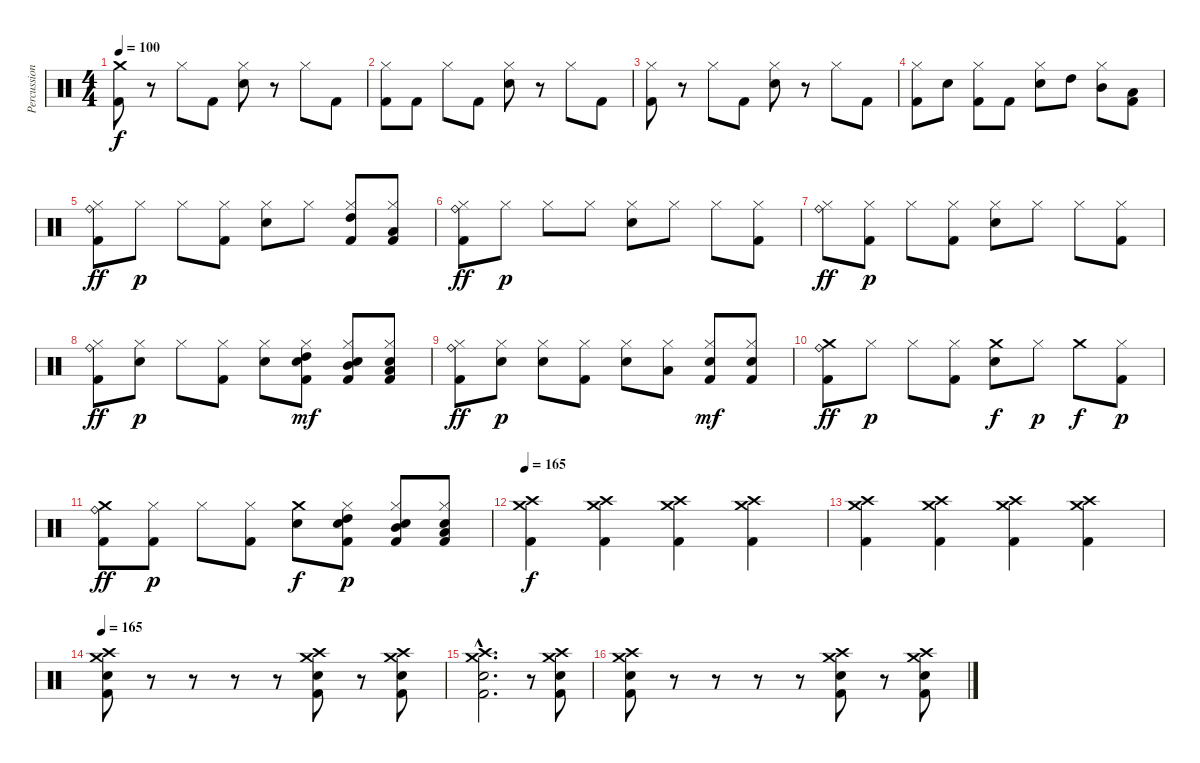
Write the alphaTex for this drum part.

\track ("Percussion" "Percussion") {instrument percussion}
\staff {score}
\articulation defaults
\ts (4 4)
\tempo 100
\clef neutral
\ks c
("Crash medium (hit)" "Kick (hit) 2").8{dy f} r.8 "Hi-Hat (closed)".8 "Kick (hit) 2".8 ("Hi-Hat (closed)" "Snare (hit) 2").8 r.8 "Hi-Hat (closed)".8 "Kick (hit) 2".8 |
("Hi-Hat (closed)" "Kick (hit) 2").8 "Kick (hit) 2".8 "Hi-Hat (closed)".8 "Kick (hit) 2".8 ("Hi-Hat (closed)" "Snare (hit) 2").8 r.8 "Hi-Hat (closed)".8 "Kick (hit) 2".8 |
("Hi-Hat (closed)" "Kick (hit) 2").8 r.8 "Hi-Hat (closed)".8 "Kick (hit) 2".8 ("Hi-Hat (closed)" "Snare (hit) 2").8 r.8 "Hi-Hat (closed)".8 "Kick (hit) 2".8 |
("Hi-Hat (closed)" "Kick (hit) 2").8 "Snare (hit) 2".8 ("Hi-Hat (closed)" "Kick (hit) 2").8 "Kick (hit) 2".8 ("Hi-Hat (closed)" "Snare (hit) 2").8 "High Tom (hit)".8 ("Hi-Hat (closed)" "Mid Tom (hit)").8 ("Low Tom (hit)" "Kick (hit) 2").8 |
("Hi-Hat (closed)" "Ride (bell)" "Kick (hit) 2").8{dy ff volume 14} "Hi-Hat (closed)".8{dy p} "Hi-Hat (closed)".8 ("Hi-Hat (closed)" "Kick (hit) 2").8 ("Hi-Hat (closed)" "Snare (hit) 2").8 "Hi-Hat (closed)".8 ("Hi-Hat (closed)" "High Tom (hit)" "Kick (hit) 2").8 ("Hi-Hat (closed)" "Low Tom (hit)" "Kick (hit) 2").8 |
("Hi-Hat (closed)" "Ride (bell)" "Kick (hit) 2").8{dy ff} "Hi-Hat (closed)".8{dy p} "Hi-Hat (closed)".8 "Hi-Hat (closed)".8 ("Hi-Hat (closed)" "Snare (hit) 2").8 "Hi-Hat (closed)".8 "Hi-Hat (closed)".8 ("Hi-Hat (closed)" "Kick (hit) 2").8 |
("Hi-Hat (closed)" "Ride (bell)").8{dy ff} ("Hi-Hat (closed)" "Kick (hit) 2").8{dy p} "Hi-Hat (closed)".8 ("Hi-Hat (closed)" "Kick (hit) 2").8 ("Hi-Hat (closed)" "Snare (hit) 2").8 "Hi-Hat (closed)".8 "Hi-Hat (closed)".8 ("Hi-Hat (closed)" "Kick (hit) 2").8 |
("Hi-Hat (closed)" "Ride (bell)" "Kick (hit) 2").8{dy ff} ("Hi-Hat (closed)" "Snare (hit) 2").8{dy p} "Hi-Hat (closed)".8 ("Hi-Hat (closed)" "Kick (hit) 2").8 ("Hi-Hat (closed)" "Snare (hit) 2").8 ("Hi-Hat (closed)" "High Tom (hit)" "Snare (hit) 2" "Kick (hit) 2").8{dy mf} ("Hi-Hat (closed)" "Mid Tom (hit)" "Snare (hit) 2" "Kick (hit) 2").8 ("Hi-Hat (closed)" "Low Tom (hit)" "Snare (hit) 2" "Kick (hit) 2").8 |
("Hi-Hat (closed)" "Ride (bell)" "Kick (hit) 2").8{dy ff} ("Hi-Hat (closed)" "Snare (hit) 2").8{dy p} ("Hi-Hat (closed)" "Snare (hit) 2").8 ("Hi-Hat (closed)" "Kick (hit) 2").8 ("Hi-Hat (closed)" "Snare (hit) 2").8 ("Hi-Hat (closed)" "Low Tom (hit)").8 ("Hi-Hat (closed)" "Snare (hit) 2" "Kick (hit) 2").8{dy mf} ("Hi-Hat (closed)" "Snare (hit) 2" "Kick (hit) 2").8 |
("Crash medium (hit)" "Ride (bell)" "Kick (hit) 2").8{dy ff} "Hi-Hat (closed)".8{dy p} "Hi-Hat (closed)".8 ("Hi-Hat (closed)" "Kick (hit) 2").8 ("Crash medium (hit)" "Snare (hit) 2").8{dy f} "Hi-Hat (closed)".8{dy p} "Crash medium (hit)".8{dy f} ("Hi-Hat (closed)" "Kick (hit) 2").8{dy p} |
("Crash medium (hit)" "Ride (bell)" "Kick (hit) 2").8{dy ff} ("Hi-Hat (closed)" "Kick (hit) 2").8{dy p} "Hi-Hat (closed)".8 ("Hi-Hat (closed)" "Kick (hit) 2").8 ("Crash medium (hit)" "Snare (hit) 2").8{dy f} ("Hi-Hat (closed)" "High Tom (hit)" "Snare (hit) 2" "Kick (hit) 2").8{dy p} ("Hi-Hat (closed)" "Mid Tom (hit)" "Snare (hit) 2" "Kick (hit) 2").8 ("Hi-Hat (closed)" "Low Tom (hit)" "Snare (hit) 2" "Kick (hit) 2").8 |
\tempo 165
("Crash medium (hit)" "Crash high (hit)" "Kick (hit) 2").4{dy f} ("Crash medium (hit)" "Crash high (hit)" "Kick (hit) 2").4 ("Crash medium (hit)" "Crash high (hit)" "Kick (hit) 2").4 ("Crash medium (hit)" "Crash high (hit)" "Kick (hit) 2").4 |
("Crash medium (hit)" "Crash high (hit)" "Kick (hit) 2").4 ("Crash medium (hit)" "Crash high (hit)" "Kick (hit) 2").4 ("Crash medium (hit)" "Crash high (hit)" "Kick (hit) 2").4 ("Crash medium (hit)" "Crash high (hit)" "Kick (hit) 2").4 |
\tempo 165
("Crash medium (hit)" "Crash high (hit)" "Snare (hit) 2" "Kick (hit) 2").8 r.8 r.8 r.8 r.8 ("Crash medium (hit)" "Crash high (hit)" "Snare (hit) 2" "Kick (hit) 2").8 r.8 ("Crash medium (hit)" "Crash high (hit)" "Snare (hit) 2" "Kick (hit) 2").8 |
("Crash medium (hit)"{hac} "Crash high (hit)"{hac} "Snare (hit) 2"{hac} "Kick (hit) 2"{hac}).2{d} r.8 ("Crash medium (hit)" "Crash high (hit)" "Snare (hit) 2" "Kick (hit) 2").8 |
("Crash medium (hit)" "Crash high (hit)" "Snare (hit) 2" "Kick (hit) 2").8 r.8 r.8 r.8 r.8 ("Crash medium (hit)" "Crash high (hit)" "Snare (hit) 2" "Kick (hit) 2").8 r.8 ("Crash medium (hit)" "Crash high (hit)" "Snare (hit) 2" "Kick (hit) 2").8
